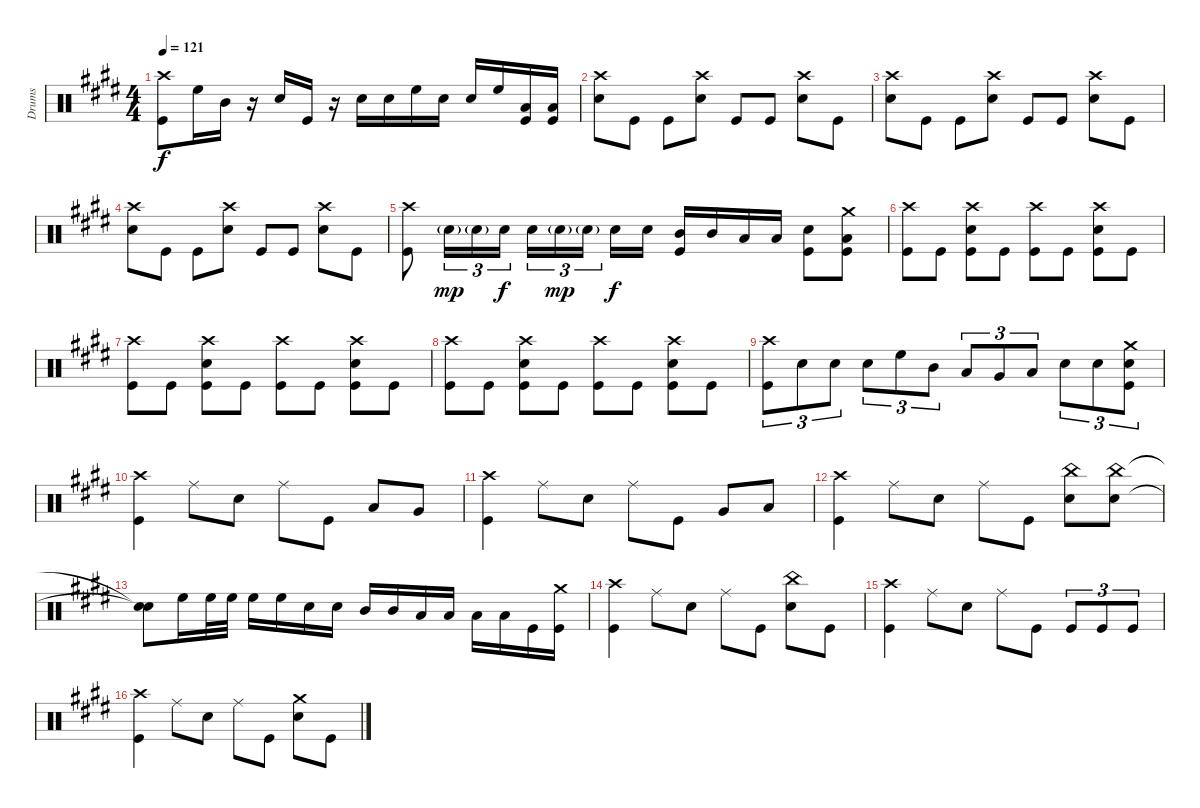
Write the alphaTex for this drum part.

\track ("Drums" "Drums") {instrument percussion}
\staff {score}
\articulation defaults
\ts (4 4)
\tempo 121
\clef neutral
\ks e
("Crash high (hit)" "Kick (hit)").8{dy f} "High Floor Tom (hit)".16 "Mid Tom (hit)".16 r.16 "Snare (hit) 2".16 "Kick (hit)".16 r.16 "Snare (hit) 2".16 "Snare (hit) 2".16 "High Floor Tom (hit)".16 "Snare (hit) 2".16 "Snare (hit) 2".16 "High Floor Tom (hit)".16 ("Low Tom (hit)" "Kick (hit)").16 ("Low Floor Tom (hit)" "Kick (hit)").16 |
("Crash high (hit)" "Snare (hit) 2").8 "Kick (hit)".8 "Kick (hit)".8 ("Crash high (hit)" "Snare (hit) 2").8 "Kick (hit)".8 "Kick (hit)".8 ("Crash high (hit)" "Snare (hit) 2").8 "Kick (hit)".8 |
("Crash high (hit)" "Snare (hit) 2").8 "Kick (hit)".8 "Kick (hit)".8 ("Crash high (hit)" "Snare (hit) 2").8 "Kick (hit)".8 "Kick (hit)".8 ("Crash high (hit)" "Snare (hit) 2").8 "Kick (hit)".8 |
("Crash high (hit)" "Snare (hit) 2").8 "Kick (hit)".8 "Kick (hit)".8 ("Crash high (hit)" "Snare (hit) 2").8 "Kick (hit)".8 "Kick (hit)".8 ("Crash high (hit)" "Snare (hit) 2").8 "Kick (hit)".8 |
("Crash high (hit)" "Kick (hit)").8 "Snare (hit) 2"{g}.16{tu (3 2) dy mp} "Snare (hit) 2"{g}.16{tu (3 2)} "Snare (hit) 2".16{tu (3 2) dy f} "Snare (hit) 2".16{tu (3 2)} "Snare (hit) 2"{g}.16{tu (3 2) dy mp} "Snare (hit) 2"{g}.16{tu (3 2) beam splitsecondary} "Snare (hit) 2".16{dy f} "Snare (hit) 2".16 ("Mid Tom (hit)" "Kick (hit)").16 "Mid Tom (hit)".16 "Low Tom (hit)".16 "Low Tom (hit)".16 ("Snare (hit) 2" "Kick (hit)").8 ("Crash medium (hit)" "Low Floor Tom (hit)" "Kick (hit)").8 |
("Crash high (hit)" "Kick (hit)").8 "Kick (hit)".8 ("Crash high (hit)" "Snare (hit) 2" "Kick (hit)").8 "Kick (hit)".8 ("Crash high (hit)" "Kick (hit)").8 "Kick (hit)".8 ("Crash high (hit)" "Snare (hit) 2" "Kick (hit)").8 "Kick (hit)".8 |
("Crash high (hit)" "Kick (hit)").8 "Kick (hit)".8 ("Crash high (hit)" "Snare (hit) 2" "Kick (hit)").8 "Kick (hit)".8 ("Crash high (hit)" "Kick (hit)").8 "Kick (hit)".8 ("Crash high (hit)" "Snare (hit) 2" "Kick (hit)").8 "Kick (hit)".8 |
("Crash high (hit)" "Kick (hit)").8 "Kick (hit)".8 ("Crash high (hit)" "Snare (hit) 2" "Kick (hit)").8 "Kick (hit)".8 ("Crash high (hit)" "Kick (hit)").8 "Kick (hit)".8 ("Crash high (hit)" "Snare (hit) 2" "Kick (hit)").8 "Kick (hit)".8 |
("Crash high (hit)" "Kick (hit)").8{tu (3 2)} "Snare (hit) 2".8{tu (3 2)} "Snare (hit) 2".8{tu (3 2)} "Snare (hit) 2".8{tu (3 2)} "High Floor Tom (hit)".8{tu (3 2)} "Mid Tom (hit)".8{tu (3 2)} "Low Tom (hit)".8{tu (3 2)} "Very Low Tom (hit)".8{tu (3 2)} "Low Floor Tom (hit)".8{tu (3 2)} "Snare (hit) 2".8{tu (3 2)} "Snare (hit) 2".8{tu (3 2)} ("Crash medium (hit)" "Snare (hit) 2" "Kick (hit)").8{tu (3 2)} |
("Crash high (hit)" "Kick (hit)").4 "Ride (middle)".8 "Snare (hit) 2".8 "Ride (middle)".8 "Kick (hit)".8 "Low Tom (hit)".8 "Very Low Tom (hit)".8 |
("Crash high (hit)" "Kick (hit)").4 "Ride (middle)".8 "Snare (hit) 2".8 "Ride (middle)".8 "Kick (hit)".8 "Very Low Tom (hit)".8 "Low Floor Tom (hit)".8 |
("Crash high (hit)" "Kick (hit)").4 "Ride (middle)".8 "Snare (hit) 2".8 "Ride (middle)".8 "Kick (hit)".8 ("China (hit)" "Snare (hit) 2").8 ("China (hit)" "Snare (hit) 2").8 |
("Snare (hit)"{t} "Snare (hit)"{t}).8 "High Floor Tom (hit)".16 "High Floor Tom (hit)".32 "High Floor Tom (hit)".32 "High Floor Tom (hit)".16 "High Floor Tom (hit)".16 "Snare (hit) 2".16 "Snare (hit) 2".16 "Mid Tom (hit)".16 "Mid Tom (hit)".16 "Low Tom (hit)".16 "Low Tom (hit)".16 "Low Floor Tom (hit)".16 "Low Floor Tom (hit)".16 "Kick (hit)".16 ("Crash medium (hit)" "Kick (hit)").16 |
("Crash high (hit)" "Kick (hit)").4 "Ride (middle)".8 "Snare (hit) 2".8 "Ride (middle)".8 "Kick (hit)".8 ("China (hit)" "Snare (hit) 2").8 "Kick (hit)".8 |
("Crash high (hit)" "Kick (hit)").4 "Ride (middle)".8 "Snare (hit) 2".8 "Ride (middle)".8 "Kick (hit)".8 "Kick (hit)".8{tu (3 2)} "Kick (hit)".8{tu (3 2)} "Kick (hit)".8{tu (3 2)} |
("Crash high (hit)" "Kick (hit)").4 "Ride (middle)".8 "Snare (hit) 2".8 "Ride (middle)".8 "Kick (hit)".8 ("Crash medium (hit)" "Snare (hit) 2").8 "Kick (hit)".8
